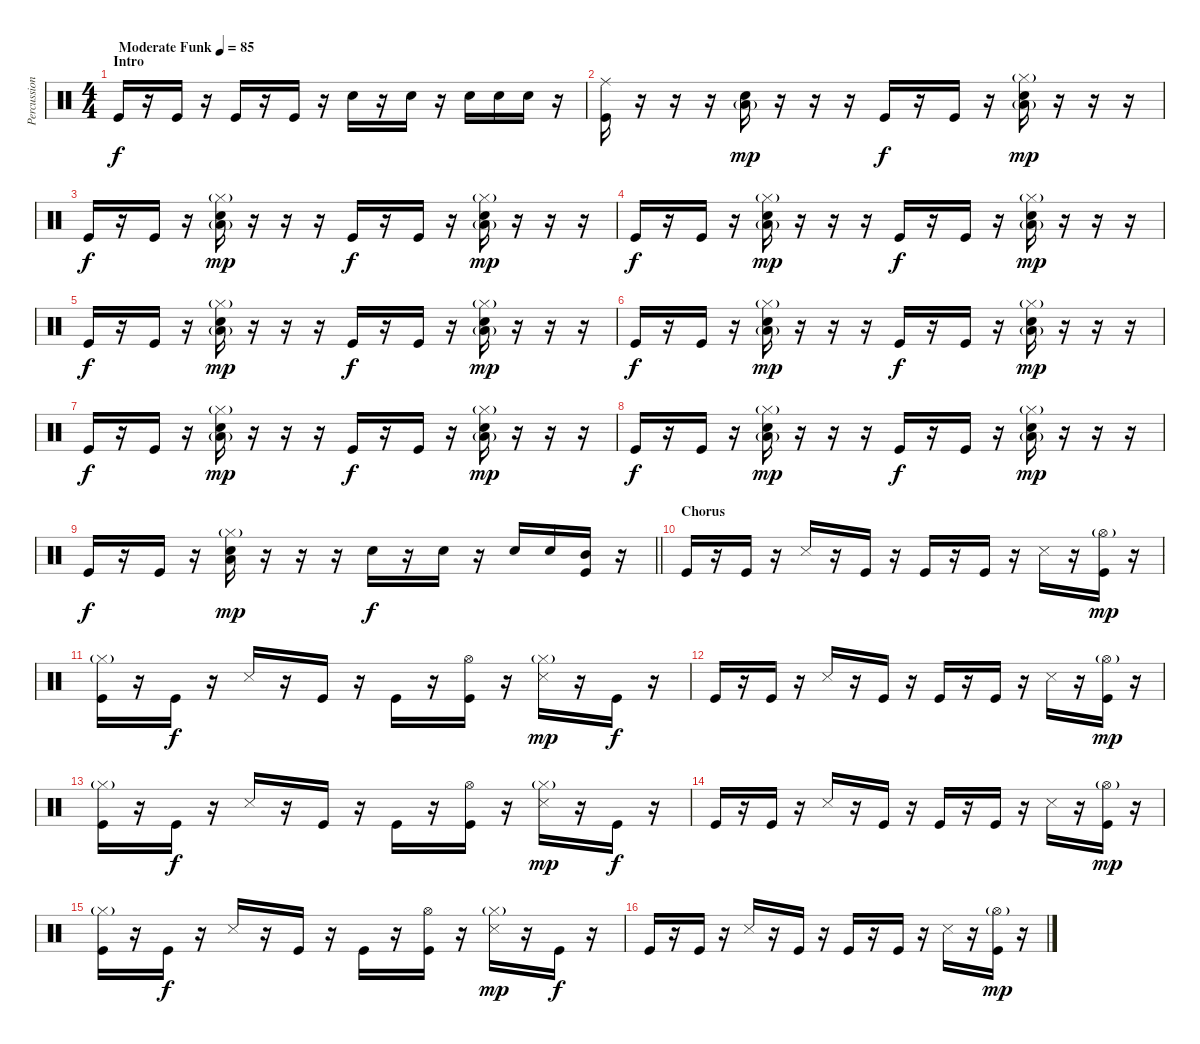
\track ("Percussion" "Percussion") {instrument percussion}
\staff {score}
\articulation defaults
\ts (4 4)
\section ("" "Intro")
\tempo (85 "Moderate Funk")
\clef neutral
\ks c "Kick (hit)".16{dy f}
r.16 "Kick (hit)".16 r.16 "Kick (hit)".16 r.16 "Kick (hit)".16 r.16 "Snare (hit) 2".16 r.16 "Snare (hit) 2".16 r.16 "Snare (hit) 2".16 "Snare (hit) 2".16 "Snare (hit) 2".16 r.16 |
("Ride (middle)" "Kick (hit)").16 r.16 r.16 r.16 ("Low Tom (hit)"{g} "Snare (hit) 2").16{dy mp} r.16 r.16 r.16 "Kick (hit)".16{dy f} r.16 "Kick (hit)".16 r.16 ("Hi-Hat (closed)"{g} "Low Tom (hit)"{g} "Snare (hit) 2").16{dy mp} r.16 r.16 r.16 |
"Kick (hit)".16{dy f} r.16 "Kick (hit)".16 r.16 ("Hi-Hat (closed)"{g} "Low Tom (hit)"{g} "Snare (hit) 2").16{dy mp} r.16 r.16 r.16 "Kick (hit)".16{dy f} r.16 "Kick (hit)".16 r.16 ("Hi-Hat (closed)"{g} "Low Tom (hit)"{g} "Snare (hit) 2").16{dy mp} r.16 r.16 r.16 |
"Kick (hit)".16{dy f} r.16 "Kick (hit)".16 r.16 ("Hi-Hat (closed)"{g} "Low Tom (hit)"{g} "Snare (hit) 2").16{dy mp} r.16 r.16 r.16 "Kick (hit)".16{dy f} r.16 "Kick (hit)".16 r.16 ("Hi-Hat (closed)"{g} "Low Tom (hit)"{g} "Snare (hit) 2").16{dy mp} r.16 r.16 r.16 |
"Kick (hit)".16{dy f} r.16 "Kick (hit)".16 r.16 ("Hi-Hat (closed)"{g} "Low Tom (hit)"{g} "Snare (hit) 2").16{dy mp} r.16 r.16 r.16 "Kick (hit)".16{dy f} r.16 "Kick (hit)".16 r.16 ("Hi-Hat (closed)"{g} "Low Tom (hit)"{g} "Snare (hit) 2").16{dy mp} r.16 r.16 r.16 |
"Kick (hit)".16{dy f} r.16 "Kick (hit)".16 r.16 ("Hi-Hat (closed)"{g} "Low Tom (hit)"{g} "Snare (hit) 2").16{dy mp} r.16 r.16 r.16 "Kick (hit)".16{dy f} r.16 "Kick (hit)".16 r.16 ("Hi-Hat (closed)"{g} "Low Tom (hit)"{g} "Snare (hit) 2").16{dy mp} r.16 r.16 r.16 |
"Kick (hit)".16{dy f} r.16 "Kick (hit)".16 r.16 ("Hi-Hat (closed)"{g} "Low Tom (hit)"{g} "Snare (hit) 2").16{dy mp} r.16 r.16 r.16 "Kick (hit)".16{dy f} r.16 "Kick (hit)".16 r.16 ("Hi-Hat (closed)"{g} "Low Tom (hit)"{g} "Snare (hit) 2").16{dy mp} r.16 r.16 r.16 |
"Kick (hit)".16{dy f} r.16 "Kick (hit)".16 r.16 ("Hi-Hat (closed)"{g} "Low Tom (hit)"{g} "Snare (hit) 2").16{dy mp} r.16 r.16 r.16 "Kick (hit)".16{dy f} r.16 "Kick (hit)".16 r.16 ("Hi-Hat (closed)"{g} "Low Tom (hit)"{g} "Snare (hit) 2").16{dy mp} r.16 r.16 r.16 |
\barLineRight lightlight "Kick (hit)".16{dy f}
r.16 "Kick (hit)".16 r.16 ("Hi-Hat (closed)"{g} "Low Tom (hit)" "Snare (hit) 2").16{dy mp} r.16 r.16 r.16 "Snare (hit) 2".16{dy f} r.16 "Snare (hit) 2".16 r.16 "Snare (hit) 2".16 "Snare (hit) 2".16 ("Mid Tom (hit)" "Kick (hit)").16 r.16 |
\section ("" "Chorus")
"Kick (hit)".16 r.16 "Kick (hit)".16 r.16 "Snare (side stick) 3".16 r.16 "Kick (hit)".16 r.16 "Kick (hit)".16 r.16 "Kick (hit)".16 r.16 "Snare (side stick) 3".16 r.16 ("Hi-Hat (open)"{g} "Kick (hit)").16{dy mp} r.16 |
("Hi-Hat (closed)"{g} "Kick (hit)").16 r.16 "Kick (hit)".16{dy f} r.16 "Snare (side stick) 3".16 r.16 "Kick (hit)".16 r.16 "Kick (hit)".16 r.16 ("Hi-Hat (open)" "Kick (hit)").16 r.16 ("Hi-Hat (closed)"{g} "Snare (side stick) 3").16{dy mp} r.16 "Kick (hit)".16{dy f} r.16 |
"Kick (hit)".16 r.16 "Kick (hit)".16 r.16 "Snare (side stick) 3".16 r.16 "Kick (hit)".16 r.16 "Kick (hit)".16 r.16 "Kick (hit)".16 r.16 "Snare (side stick) 3".16 r.16 ("Hi-Hat (open)"{g} "Kick (hit)").16{dy mp} r.16 |
("Hi-Hat (closed)"{g} "Kick (hit)").16 r.16 "Kick (hit)".16{dy f} r.16 "Snare (side stick) 3".16 r.16 "Kick (hit)".16 r.16 "Kick (hit)".16 r.16 ("Hi-Hat (open)" "Kick (hit)").16 r.16 ("Hi-Hat (closed)"{g} "Snare (side stick) 3").16{dy mp} r.16 "Kick (hit)".16{dy f} r.16 |
"Kick (hit)".16 r.16 "Kick (hit)".16 r.16 "Snare (side stick) 3".16 r.16 "Kick (hit)".16 r.16 "Kick (hit)".16 r.16 "Kick (hit)".16 r.16 "Snare (side stick) 3".16 r.16 ("Hi-Hat (open)"{g} "Kick (hit)").16{dy mp} r.16 |
("Hi-Hat (closed)"{g} "Kick (hit)").16 r.16 "Kick (hit)".16{dy f} r.16 "Snare (side stick) 3".16 r.16 "Kick (hit)".16 r.16 "Kick (hit)".16 r.16 ("Hi-Hat (open)" "Kick (hit)").16 r.16 ("Hi-Hat (closed)"{g} "Snare (side stick) 3").16{dy mp} r.16 "Kick (hit)".16{dy f} r.16 |
"Kick (hit)".16 r.16 "Kick (hit)".16 r.16 "Snare (side stick) 3".16 r.16 "Kick (hit)".16 r.16 "Kick (hit)".16 r.16 "Kick (hit)".16 r.16 "Snare (side stick) 3".16 r.16 ("Hi-Hat (open)"{g} "Kick (hit)").16{dy mp} r.16
